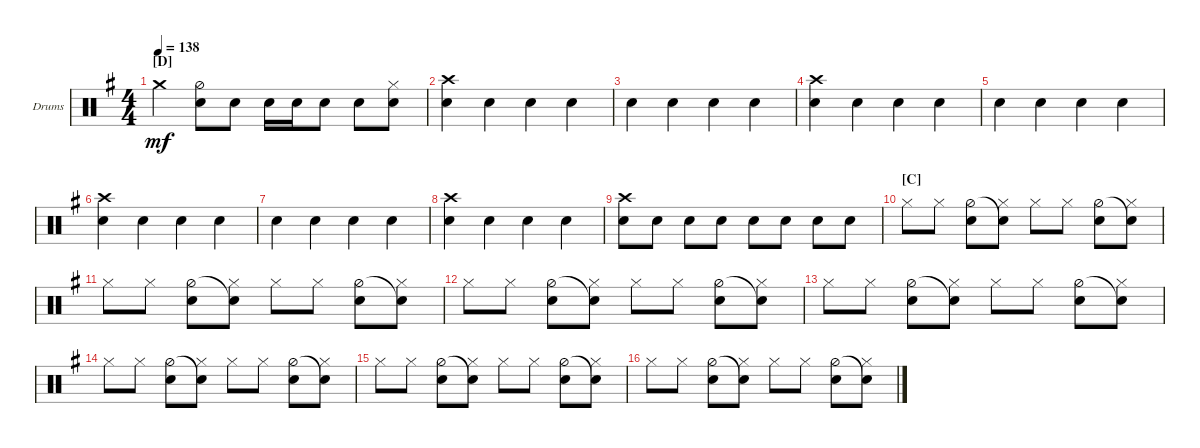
\defaultSystemsLayout 4
\bracketExtendMode groupsimilarinstruments
\firstSystemTrackNameOrientation horizontal
\otherSystemsTrackNameOrientation horizontal
\track ("Drumkit" "Drums") {instrument percussion}
\staff {score}
\articulation defaults
\ts (4 4)
\section ("D" "")
\tempo 138
\clef neutral
\ks g "Crash medium (hit)".4{dy mf}
("Snare (hit) 2" "Hi-Hat (half)").8 "Snare (hit) 2".8 "Snare (hit) 2".16 "Snare (hit) 2".16 "Snare (hit) 2".8 "Snare (hit) 2".8 ("Snare (hit) 2" "Hi-Hat (closed)").8 |
("Snare (hit) 2" "Crash high (hit)").4 "Snare (hit) 2".4 "Snare (hit) 2".4 "Snare (hit) 2".4 |
"Snare (hit) 2".4 "Snare (hit) 2".4 "Snare (hit) 2".4 "Snare (hit) 2".4 |
("Snare (hit) 2" "Crash high (hit)").4 "Snare (hit) 2".4 "Snare (hit) 2".4 "Snare (hit) 2".4 |
"Snare (hit) 2".4 "Snare (hit) 2".4 "Snare (hit) 2".4 "Snare (hit) 2".4 |
("Snare (hit) 2" "Crash high (hit)").4 "Snare (hit) 2".4 "Snare (hit) 2".4 "Snare (hit) 2".4 |
"Snare (hit) 2".4 "Snare (hit) 2".4 "Snare (hit) 2".4 "Snare (hit) 2".4 |
("Snare (hit) 2" "Crash high (hit)").4 "Snare (hit) 2".4 "Snare (hit) 2".4 "Snare (hit) 2".4 |
("Crash high (hit)" "Snare (hit) 2").8 "Snare (hit) 2".8 "Snare (hit) 2".8 "Snare (hit) 2".8 "Snare (hit) 2".8 "Snare (hit) 2".8 "Snare (hit) 2".8 "Snare (hit) 2".8 |
\section ("C" "")
"Hi-Hat (closed)".8 "Hi-Hat (closed)".8 ("Hi-Hat (half)" "Snare (hit) 2").8 ("Snare (hit) 2"{t} "Hi-Hat (closed)").8 "Hi-Hat (closed)".8 "Hi-Hat (closed)".8 ("Hi-Hat (half)" "Snare (hit) 2").8 ("Snare (hit) 2"{t} "Hi-Hat (closed)").8 |
"Hi-Hat (closed)".8 "Hi-Hat (closed)".8 ("Hi-Hat (half)" "Snare (hit) 2").8 ("Snare (hit) 2"{t} "Hi-Hat (closed)").8 "Hi-Hat (closed)".8 "Hi-Hat (closed)".8 ("Hi-Hat (half)" "Snare (hit) 2").8 ("Snare (hit) 2"{t} "Hi-Hat (closed)").8 |
"Hi-Hat (closed)".8 "Hi-Hat (closed)".8 ("Hi-Hat (half)" "Snare (hit) 2").8 ("Snare (hit) 2"{t} "Hi-Hat (closed)").8 "Hi-Hat (closed)".8 "Hi-Hat (closed)".8 ("Hi-Hat (half)" "Snare (hit) 2").8 ("Snare (hit) 2"{t} "Hi-Hat (closed)").8 |
"Hi-Hat (closed)".8 "Hi-Hat (closed)".8 ("Hi-Hat (half)" "Snare (hit) 2").8 ("Snare (hit) 2"{t} "Hi-Hat (closed)").8 "Hi-Hat (closed)".8 "Hi-Hat (closed)".8 ("Hi-Hat (half)" "Snare (hit) 2").8 ("Snare (hit) 2"{t} "Hi-Hat (closed)").8 |
"Hi-Hat (closed)".8 "Hi-Hat (closed)".8 ("Hi-Hat (half)" "Snare (hit) 2").8 ("Snare (hit) 2"{t} "Hi-Hat (closed)").8 "Hi-Hat (closed)".8 "Hi-Hat (closed)".8 ("Hi-Hat (half)" "Snare (hit) 2").8 ("Snare (hit) 2"{t} "Hi-Hat (closed)").8 |
"Hi-Hat (closed)".8 "Hi-Hat (closed)".8 ("Hi-Hat (half)" "Snare (hit) 2").8 ("Snare (hit) 2"{t} "Hi-Hat (closed)").8 "Hi-Hat (closed)".8 "Hi-Hat (closed)".8 ("Hi-Hat (half)" "Snare (hit) 2").8 ("Snare (hit) 2"{t} "Hi-Hat (closed)").8 |
"Hi-Hat (closed)".8 "Hi-Hat (closed)".8 ("Hi-Hat (half)" "Snare (hit) 2").8 ("Snare (hit) 2"{t} "Hi-Hat (closed)").8 "Hi-Hat (closed)".8 "Hi-Hat (closed)".8 ("Hi-Hat (half)" "Snare (hit) 2").8 ("Snare (hit) 2"{t} "Hi-Hat (closed)").8
